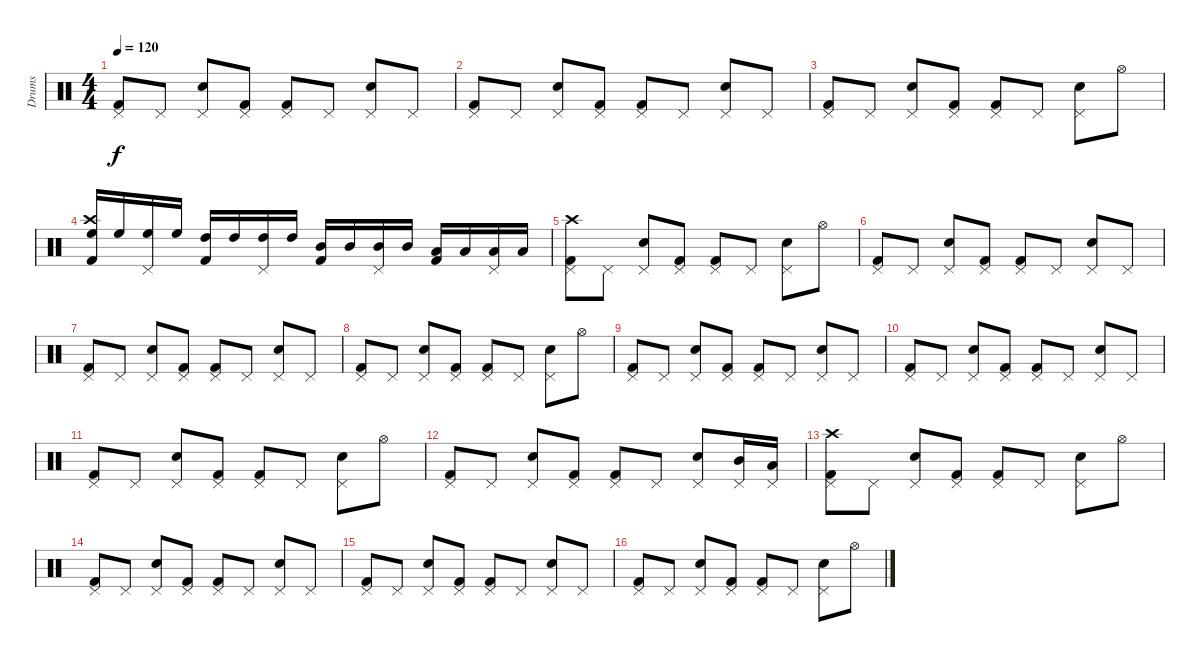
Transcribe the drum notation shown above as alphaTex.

\track ("Drums" "Drums") {instrument percussion}
\staff {score}
\articulation defaults
\ts (4 4)
\tempo 120
\clef neutral
\ks c
("Pedal Hi-Hat (hit)" "Kick (hit) 2").8{dy f} "Pedal Hi-Hat (hit)".8 ("Pedal Hi-Hat (hit)" "Snare (hit) 2").8 ("Pedal Hi-Hat (hit)" "Kick (hit) 2").8 ("Pedal Hi-Hat (hit)" "Kick (hit) 2").8 "Pedal Hi-Hat (hit)".8 ("Pedal Hi-Hat (hit)" "Snare (hit) 2").8 "Pedal Hi-Hat (hit)".8 |
("Pedal Hi-Hat (hit)" "Kick (hit) 2").8 "Pedal Hi-Hat (hit)".8 ("Pedal Hi-Hat (hit)" "Snare (hit) 2").8 ("Pedal Hi-Hat (hit)" "Kick (hit) 2").8 ("Pedal Hi-Hat (hit)" "Kick (hit) 2").8 "Pedal Hi-Hat (hit)".8 ("Pedal Hi-Hat (hit)" "Snare (hit) 2").8 "Pedal Hi-Hat (hit)".8 |
("Pedal Hi-Hat (hit)" "Kick (hit) 2").8 "Pedal Hi-Hat (hit)".8 ("Pedal Hi-Hat (hit)" "Snare (hit) 2").8 ("Pedal Hi-Hat (hit)" "Kick (hit) 2").8 ("Pedal Hi-Hat (hit)" "Kick (hit) 2").8 "Pedal Hi-Hat (hit)".8 ("Pedal Hi-Hat (hit)" "Snare (hit) 2").8 "Hi-Hat (open)".8 |
("Crash high (hit)" "High Floor Tom (hit)" "Kick (hit) 2").16 "High Floor Tom (hit)".16 ("Pedal Hi-Hat (hit)" "High Floor Tom (hit)").16 "High Floor Tom (hit)".16 ("High Tom (hit)" "Kick (hit) 2").16 "High Tom (hit)".16 ("Pedal Hi-Hat (hit)" "High Tom (hit)").16 "High Tom (hit)".16 ("Mid Tom (hit)" "Kick (hit) 2").16 "Mid Tom (hit)".16 ("Pedal Hi-Hat (hit)" "Mid Tom (hit)").16 "Mid Tom (hit)".16 ("Low Tom (hit)" "Kick (hit) 2").16 "Low Tom (hit)".16 ("Pedal Hi-Hat (hit)" "Low Tom (hit)").16 "Low Tom (hit)".16 |
("Crash high (hit)" "Pedal Hi-Hat (hit)" "Kick (hit) 2").8 "Pedal Hi-Hat (hit)".8 ("Pedal Hi-Hat (hit)" "Snare (hit) 2").8 ("Pedal Hi-Hat (hit)" "Kick (hit) 2").8 ("Pedal Hi-Hat (hit)" "Kick (hit) 2").8 "Pedal Hi-Hat (hit)".8 ("Pedal Hi-Hat (hit)" "Snare (hit) 2").8 "Hi-Hat (open)".8 |
("Pedal Hi-Hat (hit)" "Kick (hit) 2").8 "Pedal Hi-Hat (hit)".8 ("Pedal Hi-Hat (hit)" "Snare (hit) 2").8 ("Pedal Hi-Hat (hit)" "Kick (hit) 2").8 ("Pedal Hi-Hat (hit)" "Kick (hit) 2").8 "Pedal Hi-Hat (hit)".8 ("Pedal Hi-Hat (hit)" "Snare (hit) 2").8 "Pedal Hi-Hat (hit)".8 |
("Pedal Hi-Hat (hit)" "Kick (hit) 2").8 "Pedal Hi-Hat (hit)".8 ("Pedal Hi-Hat (hit)" "Snare (hit) 2").8 ("Pedal Hi-Hat (hit)" "Kick (hit) 2").8 ("Pedal Hi-Hat (hit)" "Kick (hit) 2").8 "Pedal Hi-Hat (hit)".8 ("Pedal Hi-Hat (hit)" "Snare (hit) 2").8 "Pedal Hi-Hat (hit)".8 |
("Pedal Hi-Hat (hit)" "Kick (hit) 2").8 "Pedal Hi-Hat (hit)".8 ("Pedal Hi-Hat (hit)" "Snare (hit) 2").8 ("Pedal Hi-Hat (hit)" "Kick (hit) 2").8 ("Pedal Hi-Hat (hit)" "Kick (hit) 2").8 "Pedal Hi-Hat (hit)".8 ("Pedal Hi-Hat (hit)" "Snare (hit) 2").8 "Hi-Hat (open)".8 |
("Pedal Hi-Hat (hit)" "Kick (hit) 2").8 "Pedal Hi-Hat (hit)".8 ("Pedal Hi-Hat (hit)" "Snare (hit) 2").8 ("Pedal Hi-Hat (hit)" "Kick (hit) 2").8 ("Pedal Hi-Hat (hit)" "Kick (hit) 2").8 "Pedal Hi-Hat (hit)".8 ("Pedal Hi-Hat (hit)" "Snare (hit) 2").8 "Pedal Hi-Hat (hit)".8 |
("Pedal Hi-Hat (hit)" "Kick (hit) 2").8 "Pedal Hi-Hat (hit)".8 ("Pedal Hi-Hat (hit)" "Snare (hit) 2").8 ("Pedal Hi-Hat (hit)" "Kick (hit) 2").8 ("Pedal Hi-Hat (hit)" "Kick (hit) 2").8 "Pedal Hi-Hat (hit)".8 ("Pedal Hi-Hat (hit)" "Snare (hit) 2").8 "Pedal Hi-Hat (hit)".8 |
("Pedal Hi-Hat (hit)" "Kick (hit) 2").8 "Pedal Hi-Hat (hit)".8 ("Pedal Hi-Hat (hit)" "Snare (hit) 2").8 ("Pedal Hi-Hat (hit)" "Kick (hit) 2").8 ("Pedal Hi-Hat (hit)" "Kick (hit) 2").8 "Pedal Hi-Hat (hit)".8 ("Pedal Hi-Hat (hit)" "Snare (hit) 2").8 "Hi-Hat (open)".8 |
("Pedal Hi-Hat (hit)" "Kick (hit) 2").8 "Pedal Hi-Hat (hit)".8 ("Pedal Hi-Hat (hit)" "Snare (hit) 2").8 ("Pedal Hi-Hat (hit)" "Kick (hit) 2").8 ("Pedal Hi-Hat (hit)" "Kick (hit) 2").8 "Pedal Hi-Hat (hit)".8 ("Pedal Hi-Hat (hit)" "Snare (hit) 2").8 ("Pedal Hi-Hat (hit)" "Mid Tom (hit)").16 ("Pedal Hi-Hat (hit)" "Low Tom (hit)").16 |
("Crash high (hit)" "Pedal Hi-Hat (hit)" "Kick (hit) 2").8 "Pedal Hi-Hat (hit)".8 ("Pedal Hi-Hat (hit)" "Snare (hit) 2").8 ("Pedal Hi-Hat (hit)" "Kick (hit) 2").8 ("Pedal Hi-Hat (hit)" "Kick (hit) 2").8 "Pedal Hi-Hat (hit)".8 ("Pedal Hi-Hat (hit)" "Snare (hit) 2").8 "Hi-Hat (open)".8 |
("Pedal Hi-Hat (hit)" "Kick (hit) 2").8 "Pedal Hi-Hat (hit)".8 ("Pedal Hi-Hat (hit)" "Snare (hit) 2").8 ("Pedal Hi-Hat (hit)" "Kick (hit) 2").8 ("Pedal Hi-Hat (hit)" "Kick (hit) 2").8 "Pedal Hi-Hat (hit)".8 ("Pedal Hi-Hat (hit)" "Snare (hit) 2").8 "Pedal Hi-Hat (hit)".8 |
("Pedal Hi-Hat (hit)" "Kick (hit) 2").8 "Pedal Hi-Hat (hit)".8 ("Pedal Hi-Hat (hit)" "Snare (hit) 2").8 ("Pedal Hi-Hat (hit)" "Kick (hit) 2").8 ("Pedal Hi-Hat (hit)" "Kick (hit) 2").8 "Pedal Hi-Hat (hit)".8 ("Pedal Hi-Hat (hit)" "Snare (hit) 2").8 "Pedal Hi-Hat (hit)".8 |
("Pedal Hi-Hat (hit)" "Kick (hit) 2").8 "Pedal Hi-Hat (hit)".8 ("Pedal Hi-Hat (hit)" "Snare (hit) 2").8 ("Pedal Hi-Hat (hit)" "Kick (hit) 2").8 ("Pedal Hi-Hat (hit)" "Kick (hit) 2").8 "Pedal Hi-Hat (hit)".8 ("Pedal Hi-Hat (hit)" "Snare (hit) 2").8 "Hi-Hat (open)".8
